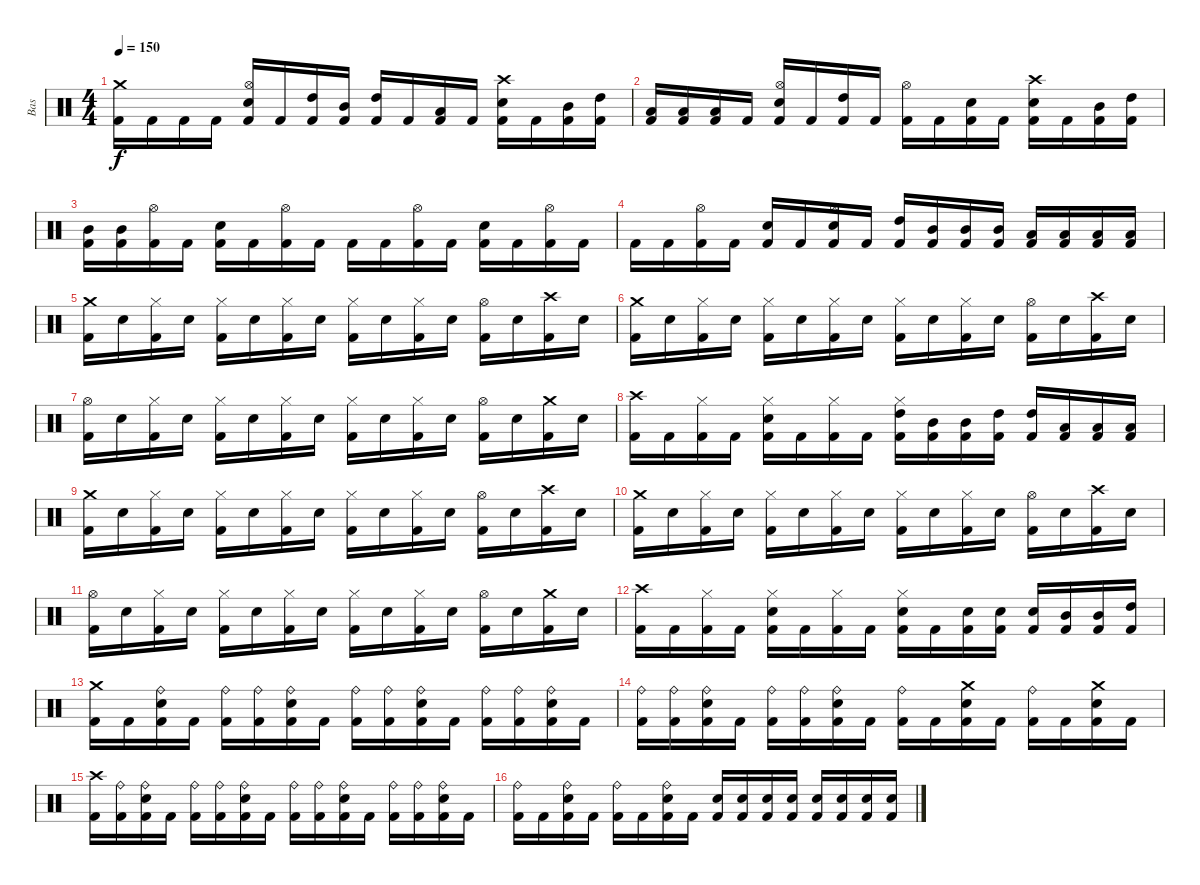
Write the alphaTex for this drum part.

\track ("Bas" "Bas") {instrument percussion}
\staff {score}
\articulation defaults
\ts (4 4)
\tempo 150
\clef neutral
\ks c
("Crash medium (hit)" "Kick (hit) 2").16{dy f} "Kick (hit) 2".16 "Kick (hit) 2".16 "Kick (hit) 2".16 ("Hi-Hat (open)" "Snare (hit) 2" "Kick (hit) 2").16 "Kick (hit) 2".16 ("High Tom (hit)" "Kick (hit) 2").16 ("Mid Tom (hit)" "Kick (hit) 2").16 ("High Tom (hit)" "Kick (hit) 2").16 "Kick (hit) 2".16 ("Low Tom (hit)" "Kick (hit) 2").16 "Kick (hit) 2".16 ("Crash high (hit)" "Snare (hit) 2" "Kick (hit) 2").16 "Kick (hit) 2".16 ("Mid Tom (hit)" "Kick (hit) 2").16 ("High Tom (hit)" "Kick (hit) 2").16 |
("Low Tom (hit)" "Kick (hit) 2").16 ("Low Tom (hit)" "Kick (hit) 2").16 ("Low Tom (hit)" "Kick (hit) 2").16 "Kick (hit) 2".16 ("Hi-Hat (open)" "Snare (hit) 2" "Kick (hit) 2").16 "Kick (hit) 2".16 ("High Tom (hit)" "Kick (hit) 2").16 "Kick (hit) 2".16 ("Hi-Hat (open)" "Kick (hit) 2").16 "Kick (hit) 2".16 ("Snare (hit) 2" "Kick (hit) 2").16 "Kick (hit) 2".16 ("Crash high (hit)" "Snare (hit) 2" "Kick (hit) 2").16 "Kick (hit) 2".16 ("Mid Tom (hit)" "Kick (hit) 2").16 ("High Tom (hit)" "Kick (hit) 2").16 |
("Mid Tom (hit)" "Kick (hit) 2").16 ("Mid Tom (hit)" "Kick (hit) 2").16 ("Hi-Hat (open)" "Kick (hit) 2").16 "Kick (hit) 2".16 ("Snare (hit) 2" "Kick (hit) 2").16 "Kick (hit) 2".16 ("Hi-Hat (open)" "Kick (hit) 2").16 "Kick (hit) 2".16 "Kick (hit) 2".16 "Kick (hit) 2".16 ("Hi-Hat (open)" "Kick (hit) 2").16 "Kick (hit) 2".16 ("Snare (hit) 2" "Kick (hit) 2").16 "Kick (hit) 2".16 ("Hi-Hat (open)" "Kick (hit) 2").16 "Kick (hit) 2".16 |
"Kick (hit) 2".16 "Kick (hit) 2".16 ("Hi-Hat (open)" "Kick (hit) 2").16 "Kick (hit) 2".16 ("Snare (hit) 2" "Kick (hit) 2").16 "Kick (hit) 2".16 ("Hi-Hat (open)" "Snare (hit) 2" "Kick (hit) 2").16 "Kick (hit) 2".16 ("High Tom (hit)" "Kick (hit) 2").16 ("Mid Tom (hit)" "Kick (hit) 2").16 ("Mid Tom (hit)" "Kick (hit) 2").16 ("Mid Tom (hit)" "Kick (hit) 2").16 ("Low Tom (hit)" "Kick (hit) 2").16 ("Low Tom (hit)" "Kick (hit) 2").16 ("Low Tom (hit)" "Kick (hit) 2").16 ("Low Tom (hit)" "Kick (hit) 2").16 |
("Crash medium (hit)" "Kick (hit) 2").16 "Snare (hit) 2".16 ("Hi-Hat (closed)" "Kick (hit) 2").16 "Snare (hit) 2".16 ("Hi-Hat (closed)" "Kick (hit) 2").16 "Snare (hit) 2".16 ("Hi-Hat (closed)" "Kick (hit) 2").16 "Snare (hit) 2".16 ("Hi-Hat (closed)" "Kick (hit) 2").16 "Snare (hit) 2".16 ("Hi-Hat (closed)" "Kick (hit) 2").16 "Snare (hit) 2".16 ("Hi-Hat (open)" "Kick (hit) 2").16 "Snare (hit) 2".16 ("Crash high (hit)" "Kick (hit) 2").16 "Snare (hit) 2".16 |
("Crash medium (hit)" "Kick (hit) 2").16 "Snare (hit) 2".16 ("Hi-Hat (closed)" "Kick (hit) 2").16 "Snare (hit) 2".16 ("Hi-Hat (closed)" "Kick (hit) 2").16 "Snare (hit) 2".16 ("Hi-Hat (closed)" "Kick (hit) 2").16 "Snare (hit) 2".16 ("Hi-Hat (closed)" "Kick (hit) 2").16 "Snare (hit) 2".16 ("Hi-Hat (closed)" "Kick (hit) 2").16 "Snare (hit) 2".16 ("Hi-Hat (open)" "Kick (hit) 2").16 "Snare (hit) 2".16 ("Crash high (hit)" "Kick (hit) 2").16 "Snare (hit) 2".16 |
("Hi-Hat (open)" "Kick (hit) 2").16 "Snare (hit) 2".16 ("Hi-Hat (closed)" "Kick (hit) 2").16 "Snare (hit) 2".16 ("Hi-Hat (closed)" "Kick (hit) 2").16 "Snare (hit) 2".16 ("Hi-Hat (closed)" "Kick (hit) 2").16 "Snare (hit) 2".16 ("Hi-Hat (closed)" "Kick (hit) 2").16 "Snare (hit) 2".16 ("Hi-Hat (closed)" "Kick (hit) 2").16 "Snare (hit) 2".16 ("Hi-Hat (open)" "Kick (hit) 2").16 "Snare (hit) 2".16 ("Crash medium (hit)" "Kick (hit) 2").16 "Snare (hit) 2".16 |
("Crash high (hit)" "Kick (hit) 2").16 "Kick (hit) 2".16 ("Hi-Hat (closed)" "Kick (hit) 2").16 "Kick (hit) 2".16 ("Hi-Hat (closed)" "Snare (hit) 2" "Kick (hit) 2").16 "Kick (hit) 2".16 ("Hi-Hat (closed)" "Kick (hit) 2").16 "Kick (hit) 2".16 ("Hi-Hat (closed)" "High Tom (hit)" "Kick (hit) 2").16 ("Mid Tom (hit)" "Kick (hit) 2").16 ("Mid Tom (hit)" "Kick (hit) 2").16 ("High Tom (hit)" "Kick (hit) 2").16 ("High Tom (hit)" "Kick (hit) 2").16 ("Low Tom (hit)" "Kick (hit) 2").16 ("Low Tom (hit)" "Kick (hit) 2").16 ("Low Tom (hit)" "Kick (hit) 2").16 |
("Crash medium (hit)" "Kick (hit) 2").16 "Snare (hit) 2".16 ("Hi-Hat (closed)" "Kick (hit) 2").16 "Snare (hit) 2".16 ("Hi-Hat (closed)" "Kick (hit) 2").16 "Snare (hit) 2".16 ("Hi-Hat (closed)" "Kick (hit) 2").16 "Snare (hit) 2".16 ("Hi-Hat (closed)" "Kick (hit) 2").16 "Snare (hit) 2".16 ("Hi-Hat (closed)" "Kick (hit) 2").16 "Snare (hit) 2".16 ("Hi-Hat (open)" "Kick (hit) 2").16 "Snare (hit) 2".16 ("Crash high (hit)" "Kick (hit) 2").16 "Snare (hit) 2".16 |
("Crash medium (hit)" "Kick (hit) 2").16 "Snare (hit) 2".16 ("Hi-Hat (closed)" "Kick (hit) 2").16 "Snare (hit) 2".16 ("Hi-Hat (closed)" "Kick (hit) 2").16 "Snare (hit) 2".16 ("Hi-Hat (closed)" "Kick (hit) 2").16 "Snare (hit) 2".16 ("Hi-Hat (closed)" "Kick (hit) 2").16 "Snare (hit) 2".16 ("Hi-Hat (closed)" "Kick (hit) 2").16 "Snare (hit) 2".16 ("Hi-Hat (open)" "Kick (hit) 2").16 "Snare (hit) 2".16 ("Crash high (hit)" "Kick (hit) 2").16 "Snare (hit) 2".16 |
("Hi-Hat (open)" "Kick (hit) 2").16 "Snare (hit) 2".16 ("Hi-Hat (closed)" "Kick (hit) 2").16 "Snare (hit) 2".16 ("Hi-Hat (closed)" "Kick (hit) 2").16 "Snare (hit) 2".16 ("Hi-Hat (closed)" "Kick (hit) 2").16 "Snare (hit) 2".16 ("Hi-Hat (closed)" "Kick (hit) 2").16 "Snare (hit) 2".16 ("Hi-Hat (closed)" "Kick (hit) 2").16 "Snare (hit) 2".16 ("Hi-Hat (open)" "Kick (hit) 2").16 "Snare (hit) 2".16 ("Crash medium (hit)" "Kick (hit) 2").16 "Snare (hit) 2".16 |
("Crash high (hit)" "Kick (hit) 2").16 "Kick (hit) 2".16 ("Hi-Hat (closed)" "Kick (hit) 2").16 "Kick (hit) 2".16 ("Hi-Hat (closed)" "Snare (hit) 2" "Kick (hit) 2").16 "Kick (hit) 2".16 ("Hi-Hat (closed)" "Kick (hit) 2").16 "Kick (hit) 2".16 ("Hi-Hat (closed)" "Snare (hit) 2" "Kick (hit) 2").16 "Kick (hit) 2".16 ("Snare (hit) 2" "Kick (hit) 2").16 ("Snare (hit) 2" "Kick (hit) 2").16 ("Snare (hit) 2" "Kick (hit) 2").16 ("Mid Tom (hit)" "Kick (hit) 2").16 ("Mid Tom (hit)" "Kick (hit) 2").16 ("High Tom (hit)" "Kick (hit) 2").16 |
("Crash medium (hit)" "Kick (hit) 2").16 "Kick (hit) 2".16 ("Ride (bell)" "Snare (hit) 2" "Kick (hit) 2").16 "Kick (hit) 2".16 ("Ride (bell)" "Kick (hit) 2").16 ("Ride (bell)" "Kick (hit) 2").16 ("Ride (bell)" "Snare (hit) 2" "Kick (hit) 2").16 "Kick (hit) 2".16 ("Ride (bell)" "Kick (hit) 2").16 ("Ride (bell)" "Kick (hit) 2").16 ("Ride (bell)" "Snare (hit) 2" "Kick (hit) 2").16 "Kick (hit) 2".16 ("Ride (bell)" "Kick (hit) 2").16 ("Ride (bell)" "Kick (hit) 2").16 ("Ride (bell)" "Snare (hit) 2" "Kick (hit) 2").16 "Kick (hit) 2".16 |
("Ride (bell)" "Kick (hit) 2").16 ("Ride (bell)" "Kick (hit) 2").16 ("Ride (bell)" "Snare (hit) 2" "Kick (hit) 2").16 "Kick (hit) 2".16 ("Ride (bell)" "Kick (hit) 2").16 ("Ride (bell)" "Kick (hit) 2").16 ("Ride (bell)" "Snare (hit) 2" "Kick (hit) 2").16 "Kick (hit) 2".16 ("Ride (bell)" "Kick (hit) 2").16 "Kick (hit) 2".16 ("Crash medium (hit)" "Snare (hit) 2" "Kick (hit) 2").16 "Kick (hit) 2".16 ("Ride (bell)" "Kick (hit) 2").16 "Kick (hit) 2".16 ("Crash medium (hit)" "Snare (hit) 2" "Kick (hit) 2").16 "Kick (hit) 2".16 |
("Crash high (hit)" "Kick (hit) 2").16 ("Ride (bell)" "Kick (hit) 2").16 ("Ride (bell)" "Snare (hit) 2" "Kick (hit) 2").16 "Kick (hit) 2".16 ("Ride (bell)" "Kick (hit) 2").16 ("Ride (bell)" "Kick (hit) 2").16 ("Ride (bell)" "Snare (hit) 2" "Kick (hit) 2").16 "Kick (hit) 2".16 ("Ride (bell)" "Kick (hit) 2").16 ("Ride (bell)" "Kick (hit) 2").16 ("Ride (bell)" "Snare (hit) 2" "Kick (hit) 2").16 "Kick (hit) 2".16 ("Ride (bell)" "Kick (hit) 2").16 ("Ride (bell)" "Kick (hit) 2").16 ("Ride (bell)" "Snare (hit) 2" "Kick (hit) 2").16 "Kick (hit) 2".16 |
("Ride (bell)" "Kick (hit) 2").16 "Kick (hit) 2".16 ("Ride (bell)" "Snare (hit) 2" "Kick (hit) 2").16 "Kick (hit) 2".16 ("Ride (bell)" "Kick (hit) 2").16 "Kick (hit) 2".16 ("Ride (bell)" "Snare (hit) 2" "Kick (hit) 2").16 "Kick (hit) 2".16 ("Snare (hit) 2" "Kick (hit) 2").16 ("Snare (hit) 2" "Kick (hit) 2").16 ("Snare (hit) 2" "Kick (hit) 2").16 ("Snare (hit) 2" "Kick (hit) 2").16 ("Snare (hit) 2" "Kick (hit) 2").16 ("Snare (hit) 2" "Kick (hit) 2").16 ("Snare (hit) 2" "Kick (hit) 2").16 ("Snare (hit) 2" "Kick (hit) 2").16
